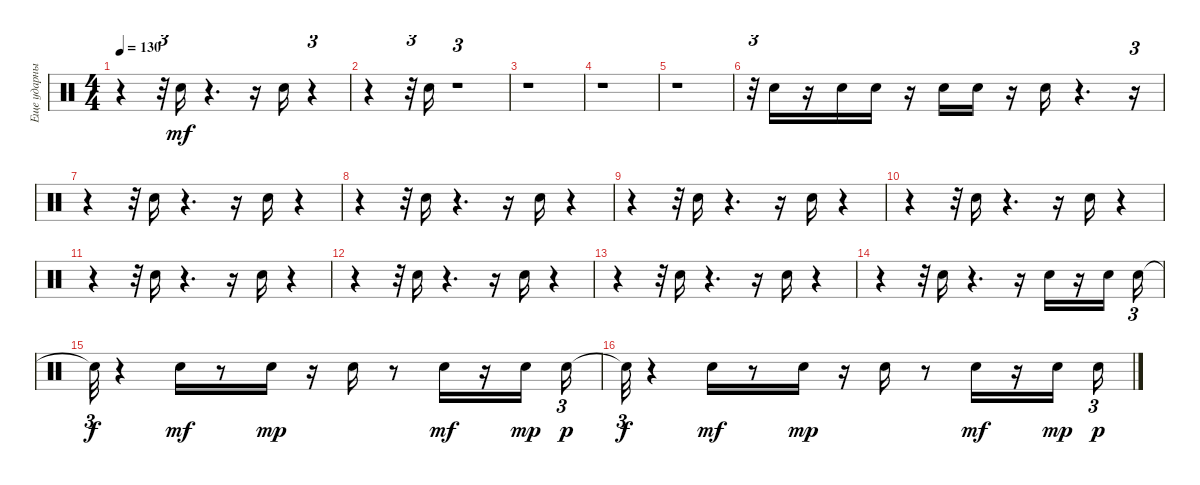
\track ("Еще ударные" "Еще ударны") {instrument percussion}
\staff {score}
\articulation defaults
\ts (4 4)
\tempo 130
\clef neutral
\ks c
r.4{dy mf} r.32{tu (3 2)} "Electric Snare (hit)".16 r.4{d} r.16 "Electric Snare (hit)".16 r.4{tu (3 2)} |
r.4 r.32{tu (3 2)} "Electric Snare (hit)".16 r.1{tu (3 2)} |
r.1 |
r.1 |
r.1 |
r.32{tu (3 2)} "Electric Snare (hit)".16 r.16 "Electric Snare (hit)".16 "Electric Snare (hit)".16 r.16 "Electric Snare (hit)".16 "Electric Snare (hit)".16 r.16 "Electric Snare (hit)".16 r.4{d} r.16{tu (3 2)} |
r.4 r.32{tu (3 2)} "Electric Snare (hit)".16 r.4{d} r.16 "Electric Snare (hit)".16 r.4{tu (3 2)} |
r.4 r.32{tu (3 2)} "Electric Snare (hit)".16 r.4{d} r.16 "Electric Snare (hit)".16 r.4{tu (3 2)} |
r.4 r.32{tu (3 2)} "Electric Snare (hit)".16 r.4{d} r.16 "Electric Snare (hit)".16 r.4{tu (3 2)} |
r.4 r.32{tu (3 2)} "Electric Snare (hit)".16 r.4{d} r.16 "Electric Snare (hit)".16 r.4{tu (3 2)} |
r.4 r.32{tu (3 2)} "Electric Snare (hit)".16 r.4{d} r.16 "Electric Snare (hit)".16 r.4{tu (3 2)} |
r.4 r.32{tu (3 2)} "Electric Snare (hit)".16 r.4{d} r.16 "Electric Snare (hit)".16 r.4{tu (3 2)} |
r.4 r.32{tu (3 2)} "Electric Snare (hit)".16 r.4{d} r.16 "Electric Snare (hit)".16 r.4{tu (3 2)} |
r.4 r.32{tu (3 2)} "Electric Snare (hit)".16 r.4{d} r.16 "Electric Snare (hit)".16 r.16 "Electric Snare (hit)".16 "Electric Snare (hit)".16{tu (3 2)} |
"Snare (hit)"{t}.32{tu (3 2) dy f} r.4 "Electric Snare (hit)".16{dy mf} r.8 "Electric Snare (hit)".16{dy mp} r.16 "Electric Snare (hit)".16 r.8 "Electric Snare (hit)".16{dy mf} r.16 "Electric Snare (hit)".16{dy mp} "Electric Snare (hit)".16{tu (3 2) dy p} |
"Snare (hit)"{t}.32{tu (3 2) dy f} r.4 "Electric Snare (hit)".16{dy mf} r.8 "Electric Snare (hit)".16{dy mp} r.16 "Electric Snare (hit)".16 r.8 "Electric Snare (hit)".16{dy mf} r.16 "Electric Snare (hit)".16{dy mp} "Electric Snare (hit)".16{tu (3 2) dy p}
